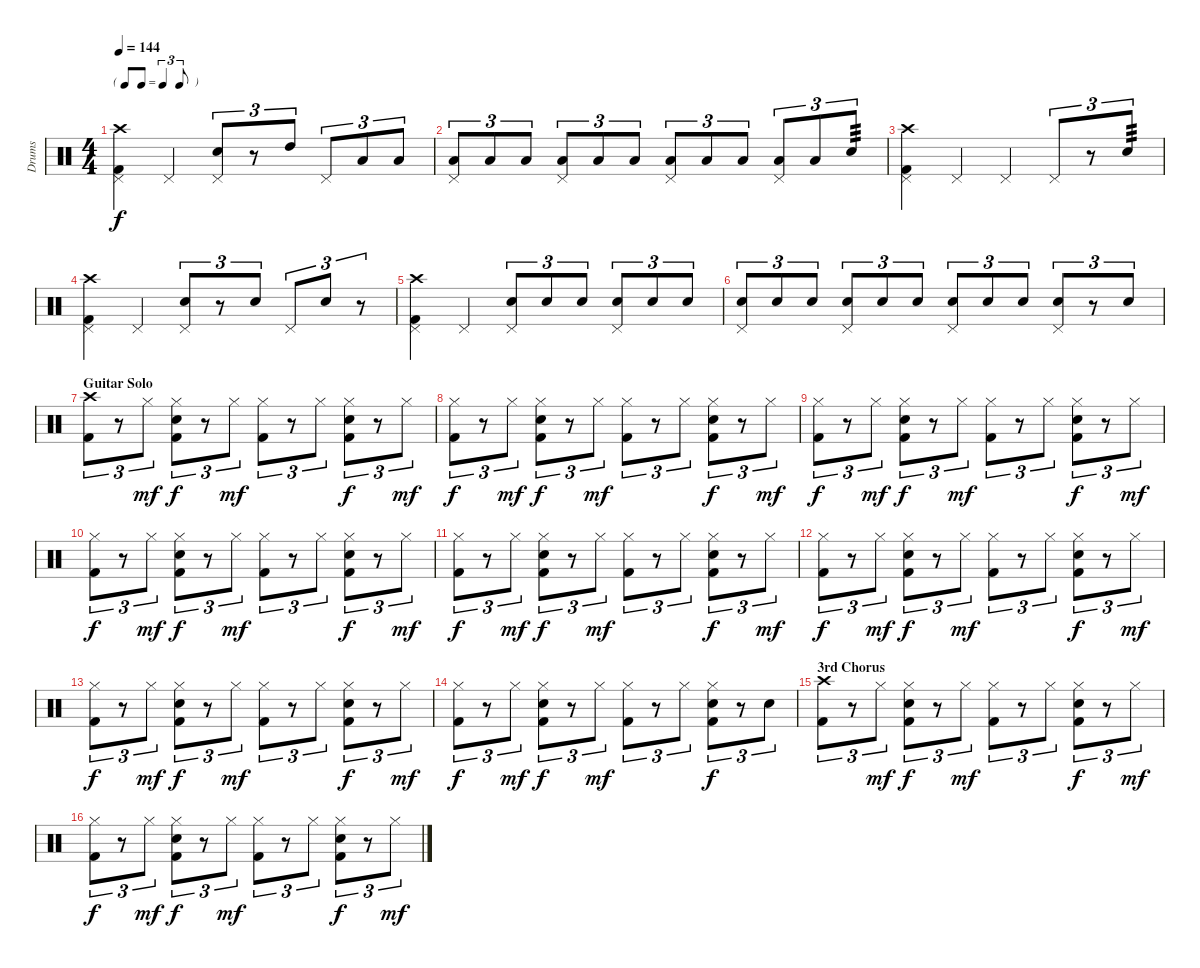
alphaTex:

\track ("Drums" "Drums") {instrument percussion}
\staff {score}
\articulation defaults
\ts (4 4)
\tf triplet8th
\tempo 144
\clef neutral
\ks c
("Crash high (hit)" "Pedal Hi-Hat (hit)" "Kick (hit) 2").4{dy f} "Pedal Hi-Hat (hit)".4 ("Pedal Hi-Hat (hit)" "Snare (hit) 2").8{tu (3 2)} r.8{tu (3 2)} "High Tom (hit)".8{tu (3 2)} "Pedal Hi-Hat (hit)".8{tu (3 2)} "Low Tom (hit)".8{tu (3 2)} "Low Tom (hit)".8{tu (3 2)} |
("Pedal Hi-Hat (hit)" "Low Tom (hit)").8{tu (3 2)} "Low Tom (hit)".8{tu (3 2)} "Low Tom (hit)".8{tu (3 2)} ("Pedal Hi-Hat (hit)" "Low Tom (hit)").8{tu (3 2)} "Low Tom (hit)".8{tu (3 2)} "Low Tom (hit)".8{tu (3 2)} ("Pedal Hi-Hat (hit)" "Low Floor Tom (hit)").8{tu (3 2)} "Low Floor Tom (hit)".8{tu (3 2)} "Low Floor Tom (hit)".8{tu (3 2)} ("Pedal Hi-Hat (hit)" "Low Floor Tom (hit)").8{tu (3 2)} "Low Floor Tom (hit)".8{tu (3 2)} "Snare (hit) 2".8{tu (3 2) tp 3} |
("Crash high (hit)" "Pedal Hi-Hat (hit)" "Kick (hit) 2").4 "Pedal Hi-Hat (hit)".4 "Pedal Hi-Hat (hit)".4 "Pedal Hi-Hat (hit)".8{tu (3 2)} r.8{tu (3 2)} "Snare (hit) 2".8{tu (3 2) tp 3} |
("Crash high (hit)" "Pedal Hi-Hat (hit)" "Kick (hit) 2").4 "Pedal Hi-Hat (hit)".4 ("Pedal Hi-Hat (hit)" "Snare (hit) 2").8{tu (3 2)} r.8{tu (3 2)} "Snare (hit) 2".8{tu (3 2)} "Pedal Hi-Hat (hit)".8{tu (3 2)} "Snare (hit) 2".8{tu (3 2)} r.8{tu (3 2)} |
("Crash high (hit)" "Pedal Hi-Hat (hit)" "Kick (hit) 2").4 "Pedal Hi-Hat (hit)".4 ("Pedal Hi-Hat (hit)" "Snare (hit) 2").8{tu (3 2)} "Snare (hit) 2".8{tu (3 2)} "Snare (hit) 2".8{tu (3 2)} ("Pedal Hi-Hat (hit)" "Snare (hit) 2").8{tu (3 2)} "Snare (hit) 2".8{tu (3 2)} "Snare (hit) 2".8{tu (3 2)} |
("Pedal Hi-Hat (hit)" "Snare (hit) 2").8{tu (3 2)} "Snare (hit) 2".8{tu (3 2)} "Snare (hit) 2".8{tu (3 2)} ("Pedal Hi-Hat (hit)" "Snare (hit) 2").8{tu (3 2)} "Snare (hit) 2".8{tu (3 2)} "Snare (hit) 2".8{tu (3 2)} ("Pedal Hi-Hat (hit)" "Snare (hit) 2").8{tu (3 2)} "Snare (hit) 2".8{tu (3 2)} "Snare (hit) 2".8{tu (3 2)} ("Pedal Hi-Hat (hit)" "Snare (hit) 2").8{tu (3 2)} r.8{tu (3 2)} "Snare (hit) 2".8{tu (3 2)} |
\section ("" "Guitar Solo")
("Crash high (hit)" "Kick (hit) 2").8{tu (3 2)} r.8{tu (3 2)} "Hi-Hat (closed)".8{tu (3 2) dy mf} ("Hi-Hat (closed)" "Snare (hit) 2" "Kick (hit) 2").8{tu (3 2) dy f} r.8{tu (3 2)} "Hi-Hat (closed)".8{tu (3 2) dy mf} ("Hi-Hat (closed)" "Kick (hit) 2").8{tu (3 2)} r.8{tu (3 2)} "Hi-Hat (closed)".8{tu (3 2)} ("Hi-Hat (closed)" "Snare (hit) 2" "Kick (hit) 2").8{tu (3 2) dy f} r.8{tu (3 2)} "Hi-Hat (closed)".8{tu (3 2) dy mf} |
("Hi-Hat (closed)" "Kick (hit) 2").8{tu (3 2) dy f} r.8{tu (3 2)} "Hi-Hat (closed)".8{tu (3 2) dy mf} ("Hi-Hat (closed)" "Snare (hit) 2" "Kick (hit) 2").8{tu (3 2) dy f} r.8{tu (3 2)} "Hi-Hat (closed)".8{tu (3 2) dy mf} ("Hi-Hat (closed)" "Kick (hit) 2").8{tu (3 2)} r.8{tu (3 2)} "Hi-Hat (closed)".8{tu (3 2)} ("Hi-Hat (closed)" "Snare (hit) 2" "Kick (hit) 2").8{tu (3 2) dy f} r.8{tu (3 2)} "Hi-Hat (closed)".8{tu (3 2) dy mf} |
("Hi-Hat (closed)" "Kick (hit) 2").8{tu (3 2) dy f} r.8{tu (3 2)} "Hi-Hat (closed)".8{tu (3 2) dy mf} ("Hi-Hat (closed)" "Snare (hit) 2" "Kick (hit) 2").8{tu (3 2) dy f} r.8{tu (3 2)} "Hi-Hat (closed)".8{tu (3 2) dy mf} ("Hi-Hat (closed)" "Kick (hit) 2").8{tu (3 2)} r.8{tu (3 2)} "Hi-Hat (closed)".8{tu (3 2)} ("Hi-Hat (closed)" "Snare (hit) 2" "Kick (hit) 2").8{tu (3 2) dy f} r.8{tu (3 2)} "Hi-Hat (closed)".8{tu (3 2) dy mf} |
("Hi-Hat (closed)" "Kick (hit) 2").8{tu (3 2) dy f} r.8{tu (3 2)} "Hi-Hat (closed)".8{tu (3 2) dy mf} ("Hi-Hat (closed)" "Snare (hit) 2" "Kick (hit) 2").8{tu (3 2) dy f} r.8{tu (3 2)} "Hi-Hat (closed)".8{tu (3 2) dy mf} ("Hi-Hat (closed)" "Kick (hit) 2").8{tu (3 2)} r.8{tu (3 2)} "Hi-Hat (closed)".8{tu (3 2)} ("Hi-Hat (closed)" "Snare (hit) 2" "Kick (hit) 2").8{tu (3 2) dy f} r.8{tu (3 2)} "Hi-Hat (closed)".8{tu (3 2) dy mf} |
("Hi-Hat (closed)" "Kick (hit) 2").8{tu (3 2) dy f} r.8{tu (3 2)} "Hi-Hat (closed)".8{tu (3 2) dy mf} ("Hi-Hat (closed)" "Snare (hit) 2" "Kick (hit) 2").8{tu (3 2) dy f} r.8{tu (3 2)} "Hi-Hat (closed)".8{tu (3 2) dy mf} ("Hi-Hat (closed)" "Kick (hit) 2").8{tu (3 2)} r.8{tu (3 2)} "Hi-Hat (closed)".8{tu (3 2)} ("Hi-Hat (closed)" "Snare (hit) 2" "Kick (hit) 2").8{tu (3 2) dy f} r.8{tu (3 2)} "Hi-Hat (closed)".8{tu (3 2) dy mf} |
("Hi-Hat (closed)" "Kick (hit) 2").8{tu (3 2) dy f} r.8{tu (3 2)} "Hi-Hat (closed)".8{tu (3 2) dy mf} ("Hi-Hat (closed)" "Snare (hit) 2" "Kick (hit) 2").8{tu (3 2) dy f} r.8{tu (3 2)} "Hi-Hat (closed)".8{tu (3 2) dy mf} ("Hi-Hat (closed)" "Kick (hit) 2").8{tu (3 2)} r.8{tu (3 2)} "Hi-Hat (closed)".8{tu (3 2)} ("Hi-Hat (closed)" "Snare (hit) 2" "Kick (hit) 2").8{tu (3 2) dy f} r.8{tu (3 2)} "Hi-Hat (closed)".8{tu (3 2) dy mf} |
("Hi-Hat (closed)" "Kick (hit) 2").8{tu (3 2) dy f} r.8{tu (3 2)} "Hi-Hat (closed)".8{tu (3 2) dy mf} ("Hi-Hat (closed)" "Snare (hit) 2" "Kick (hit) 2").8{tu (3 2) dy f} r.8{tu (3 2)} "Hi-Hat (closed)".8{tu (3 2) dy mf} ("Hi-Hat (closed)" "Kick (hit) 2").8{tu (3 2)} r.8{tu (3 2)} "Hi-Hat (closed)".8{tu (3 2)} ("Hi-Hat (closed)" "Snare (hit) 2" "Kick (hit) 2").8{tu (3 2) dy f} r.8{tu (3 2)} "Hi-Hat (closed)".8{tu (3 2) dy mf} |
("Hi-Hat (closed)" "Kick (hit) 2").8{tu (3 2) dy f} r.8{tu (3 2)} "Hi-Hat (closed)".8{tu (3 2) dy mf} ("Hi-Hat (closed)" "Snare (hit) 2" "Kick (hit) 2").8{tu (3 2) dy f} r.8{tu (3 2)} "Hi-Hat (closed)".8{tu (3 2) dy mf} ("Hi-Hat (closed)" "Kick (hit) 2").8{tu (3 2)} r.8{tu (3 2)} "Hi-Hat (closed)".8{tu (3 2)} ("Hi-Hat (closed)" "Snare (hit) 2" "Kick (hit) 2").8{tu (3 2) dy f} r.8{tu (3 2)} "Snare (hit) 2".8{tu (3 2)} |
\section ("" "3rd Chorus")
("Crash high (hit)" "Kick (hit) 2").8{tu (3 2)} r.8{tu (3 2)} "Hi-Hat (closed)".8{tu (3 2) dy mf} ("Hi-Hat (closed)" "Snare (hit) 2" "Kick (hit) 2").8{tu (3 2) dy f} r.8{tu (3 2)} "Hi-Hat (closed)".8{tu (3 2) dy mf} ("Hi-Hat (closed)" "Kick (hit) 2").8{tu (3 2)} r.8{tu (3 2)} "Hi-Hat (closed)".8{tu (3 2)} ("Hi-Hat (closed)" "Snare (hit) 2" "Kick (hit) 2").8{tu (3 2) dy f} r.8{tu (3 2)} "Hi-Hat (closed)".8{tu (3 2) dy mf} |
("Hi-Hat (closed)" "Kick (hit) 2").8{tu (3 2) dy f} r.8{tu (3 2)} "Hi-Hat (closed)".8{tu (3 2) dy mf} ("Hi-Hat (closed)" "Snare (hit) 2" "Kick (hit) 2").8{tu (3 2) dy f} r.8{tu (3 2)} "Hi-Hat (closed)".8{tu (3 2) dy mf} ("Hi-Hat (closed)" "Kick (hit) 2").8{tu (3 2)} r.8{tu (3 2)} "Hi-Hat (closed)".8{tu (3 2)} ("Hi-Hat (closed)" "Snare (hit) 2" "Kick (hit) 2").8{tu (3 2) dy f} r.8{tu (3 2)} "Hi-Hat (closed)".8{tu (3 2) dy mf}
